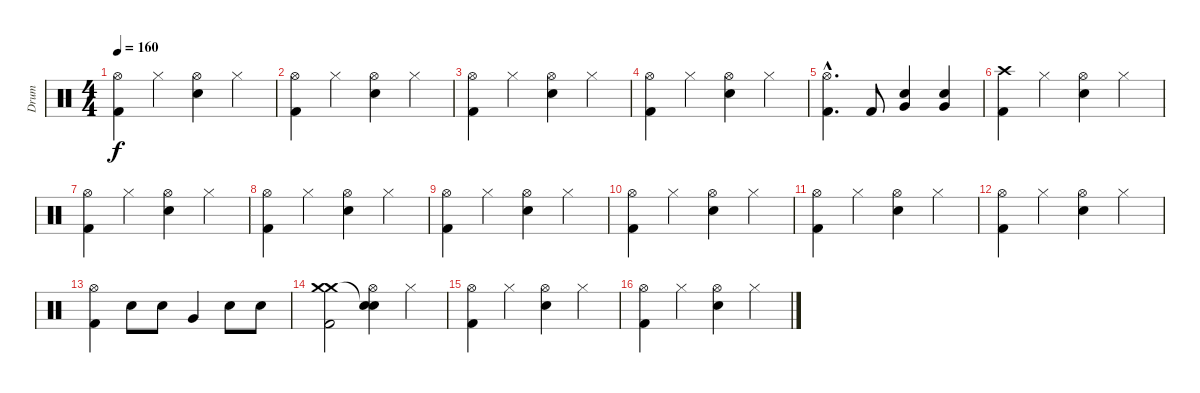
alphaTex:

\track ("Drum" "Drum") {instrument percussion}
\staff {score}
\articulation defaults
\ts (4 4)
\tempo 160
\clef neutral
\ks c
("Kick (hit) 2" "Hi-Hat (open)").4{dy f} "Hi-Hat (closed)".4 ("Electric Snare (hit)" "Hi-Hat (open)").4 "Hi-Hat (closed)".4 |
("Kick (hit) 2" "Hi-Hat (open)").4 "Hi-Hat (closed)".4 ("Electric Snare (hit)" "Hi-Hat (open)").4 "Hi-Hat (closed)".4 |
("Kick (hit) 2" "Hi-Hat (open)").4 "Hi-Hat (closed)".4 ("Electric Snare (hit)" "Hi-Hat (open)").4 "Hi-Hat (closed)".4 |
("Kick (hit) 2" "Hi-Hat (open)").4 "Hi-Hat (closed)".4 ("Electric Snare (hit)" "Hi-Hat (open)").4 "Hi-Hat (closed)".4 |
("Kick (hit) 2"{hac} "Hi-Hat (open)"{hac}).4{d} "Kick (hit) 2".8 ("Electric Snare (hit)" "Very Low Tom (hit)").4 ("Electric Snare (hit)" "Very Low Tom (hit)").4 |
\section ("" "")
("Kick (hit) 2" "Crash high (hit)").4 "Hi-Hat (closed)".4 ("Electric Snare (hit)" "Hi-Hat (open)").4 "Hi-Hat (closed)".4 |
("Kick (hit) 2" "Hi-Hat (open)").4 "Hi-Hat (closed)".4 ("Electric Snare (hit)" "Hi-Hat (open)").4 "Hi-Hat (closed)".4 |
("Kick (hit) 2" "Hi-Hat (open)").4 "Hi-Hat (closed)".4 ("Electric Snare (hit)" "Hi-Hat (open)").4 "Hi-Hat (closed)".4 |
("Kick (hit) 2" "Hi-Hat (open)").4 "Hi-Hat (closed)".4 ("Electric Snare (hit)" "Hi-Hat (open)").4 "Hi-Hat (closed)".4 |
("Kick (hit) 2" "Hi-Hat (open)").4 "Hi-Hat (closed)".4 ("Electric Snare (hit)" "Hi-Hat (open)").4 "Hi-Hat (closed)".4 |
("Kick (hit) 2" "Hi-Hat (open)").4 "Hi-Hat (closed)".4 ("Electric Snare (hit)" "Hi-Hat (open)").4 "Hi-Hat (closed)".4 |
("Kick (hit) 2" "Hi-Hat (open)").4 "Hi-Hat (closed)".4 ("Electric Snare (hit)" "Hi-Hat (open)").4 "Hi-Hat (closed)".4 |
("Kick (hit) 2" "Hi-Hat (open)").4 "Electric Snare (hit)".8 "Electric Snare (hit)".8 "Very Low Tom (hit)".4 "Electric Snare (hit)".8 "Electric Snare (hit)".8 |
\section ("" "")
("Kick (hit) 2" "Crash medium (hit)" "Crash medium (hit)").2 ("Electric Snare (hit)" "Hi-Hat (open)" "Snare (hit)"{t}).4 "Hi-Hat (closed)".4 |
("Kick (hit) 2" "Hi-Hat (open)").4 "Hi-Hat (closed)".4 ("Electric Snare (hit)" "Hi-Hat (open)").4 "Hi-Hat (closed)".4 |
("Kick (hit) 2" "Hi-Hat (open)").4 "Hi-Hat (closed)".4 ("Electric Snare (hit)" "Hi-Hat (open)").4 "Hi-Hat (closed)".4
